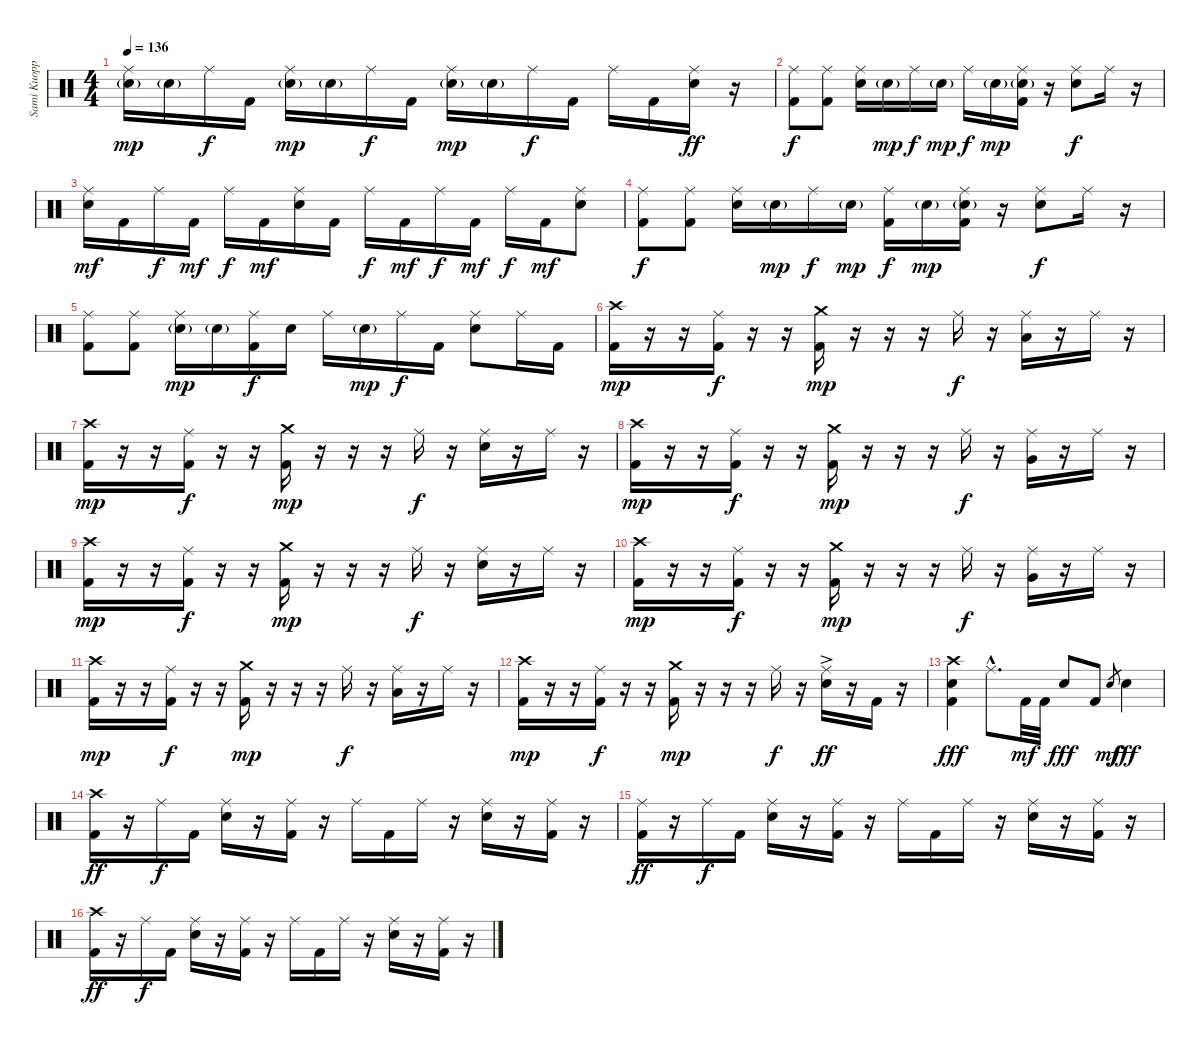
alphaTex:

\track ("Sami Kuoppamäki - Drums" "Sami Kuopp") {instrument percussion}
\staff {score}
\articulation defaults
\ts (4 4)
\tempo 136
\clef neutral
\ks c
("Ride (middle)" "Snare (hit) 2"{g}).16{dy mp} "Snare (hit) 2"{g}.16 "Ride (middle)".16{dy f} "Kick (hit) 2".16 ("Ride (middle)" "Snare (hit) 2"{g}).16{dy mp} "Snare (hit) 2"{g}.16 "Ride (middle)".16{dy f} "Kick (hit) 2".16 ("Ride (middle)" "Snare (hit) 2"{g}).16{dy mp} "Snare (hit) 2"{g}.16 "Ride (middle)".16{dy f} "Kick (hit) 2".16 "Ride (middle)".16 "Kick (hit) 2".16 ("Ride (middle)" "Snare (hit) 2").16{dy ff} r.16 |
("Ride (middle)" "Kick (hit) 2").8{dy f} ("Ride (middle)" "Kick (hit) 2").8 ("Ride (middle)" "Snare (hit) 2").16 "Snare (hit) 2"{g}.16{dy mp} "Ride (middle)".16{dy f} "Snare (hit) 2"{g}.16{dy mp} "Ride (middle)".16{dy f} "Snare (hit) 2"{g}.16{dy mp} ("Ride (middle)" "Snare (hit) 2"{g} "Kick (hit) 2").16 r.16 ("Ride (middle)" "Snare (hit) 2").8{dy f} "Ride (middle)".16 r.16 |
("Ride (middle)" "Snare (hit) 2").16{dy mf} "Kick (hit) 2".16 "Ride (middle)".16{dy f} "Kick (hit) 2".16{dy mf} "Ride (middle)".16{dy f} "Kick (hit) 2".16{dy mf} ("Ride (middle)" "Snare (hit) 2").16 "Kick (hit) 2".16 "Ride (middle)".16{dy f} "Kick (hit) 2".16{dy mf} "Ride (middle)".16{dy f} "Kick (hit) 2".16{dy mf} "Ride (middle)".16{dy f} "Kick (hit) 2".16{dy mf} ("Ride (middle)" "Snare (hit) 2").8 |
("Ride (middle)" "Kick (hit) 2").8{dy f} ("Ride (middle)" "Kick (hit) 2").8 ("Ride (middle)" "Snare (hit) 2").16 "Snare (hit) 2"{g}.16{dy mp} "Ride (middle)".16{dy f} "Snare (hit) 2"{g}.16{dy mp} ("Ride (middle)" "Kick (hit) 2").16{dy f} "Snare (hit) 2"{g}.16{dy mp} ("Ride (middle)" "Snare (hit) 2"{g} "Kick (hit) 2").16 r.16 ("Ride (middle)" "Snare (hit) 2").8{dy f} "Ride (middle)".16 r.16 |
("Ride (middle)" "Kick (hit) 2").8 ("Ride (middle)" "Kick (hit) 2").8 ("Ride (middle)" "Snare (hit) 2"{g}).16{dy mp} "Snare (hit) 2"{g}.16 ("Ride (middle)" "Kick (hit) 2").16{dy f} "Snare (hit) 2".16 "Ride (middle)".16 "Snare (hit) 2"{g}.16{dy mp} "Ride (middle)".16{dy f} "Kick (hit) 2".16 ("Ride (middle)" "Snare (hit) 2").8 "Ride (middle)".16 "Kick (hit) 2".16 |
("Crash high (hit)" "Kick (hit) 2").16{dy mp} r.16 r.16 ("Ride (middle)" "Kick (hit) 2").16{dy f} r.16 r.16 ("Crash medium (hit)" "Kick (hit) 2").16{dy mp} r.16 r.16 r.16 "Ride (middle)".16{dy f} r.16 ("Ride (middle)" "Low Tom (hit)").16 r.16 "Ride (middle)".16 r.16 |
("Crash high (hit)" "Kick (hit) 2").16{dy mp} r.16 r.16 ("Ride (middle)" "Kick (hit) 2").16{dy f} r.16 r.16 ("Crash medium (hit)" "Kick (hit) 2").16{dy mp} r.16 r.16 r.16 "Ride (middle)".16{dy f} r.16 ("Ride (middle)" "Snare (hit) 2").16 r.16 "Ride (middle)".16 r.16 |
("Crash high (hit)" "Kick (hit) 2").16{dy mp} r.16 r.16 ("Ride (middle)" "Kick (hit) 2").16{dy f} r.16 r.16 ("Crash medium (hit)" "Kick (hit) 2").16{dy mp} r.16 r.16 r.16 "Ride (middle)".16{dy f} r.16 ("Ride (middle)" "Very Low Tom (hit)").16 r.16 "Ride (middle)".16 r.16 |
("Crash high (hit)" "Kick (hit) 2").16{dy mp} r.16 r.16 ("Ride (middle)" "Kick (hit) 2").16{dy f} r.16 r.16 ("Crash medium (hit)" "Kick (hit) 2").16{dy mp} r.16 r.16 r.16 "Ride (middle)".16{dy f} r.16 ("Ride (middle)" "Snare (hit) 2").16 r.16 "Ride (middle)".16 r.16 |
("Crash high (hit)" "Kick (hit) 2").16{dy mp} r.16 r.16 ("Ride (middle)" "Kick (hit) 2").16{dy f} r.16 r.16 ("Crash medium (hit)" "Kick (hit) 2").16{dy mp} r.16 r.16 r.16 "Ride (middle)".16{dy f} r.16 ("Ride (middle)" "Very Low Tom (hit)").16 r.16 "Ride (middle)".16 r.16 |
("Crash high (hit)" "Kick (hit) 2").16{dy mp} r.16 r.16 ("Ride (middle)" "Kick (hit) 2").16{dy f} r.16 r.16 ("Crash medium (hit)" "Kick (hit) 2").16{dy mp} r.16 r.16 r.16 "Ride (middle)".16{dy f} r.16 ("Ride (middle)" "Low Tom (hit)").16 r.16 "Ride (middle)".16 r.16 |
("Crash high (hit)" "Kick (hit) 2").16{dy mp} r.16 r.16 ("Ride (middle)" "Kick (hit) 2").16{dy f} r.16 r.16 ("Crash medium (hit)" "Kick (hit) 2").16{dy mp} r.16 r.16 r.16 "Ride (middle)".16{dy f} r.16 ("Ride (middle)"{ac} "Snare (hit) 2").16{dy ff} r.16 "Kick (hit) 2".16 r.16 |
("Crash high (hit)" "Snare (hit) 2" "Kick (hit) 2").4{dy fff} "Ride (middle)"{hac}.8{d} "Kick (hit) 2".32{dy mf} "Kick (hit) 2".32 "Snare (hit) 2".8{dy fff} "Kick (hit) 2".8 "Snare (hit) 2".8{gr dy mf} "Snare (hit) 2".4{dy fff} |
("Crash high (hit)" "Kick (hit) 2").16{dy ff volume 14} r.16 "Ride (middle)".16{dy f} "Kick (hit) 2".16 ("Ride (middle)" "Snare (hit) 2").16 r.16 ("Ride (middle)" "Kick (hit) 2").16 r.16 "Ride (middle)".16 "Kick (hit) 2".16 "Ride (middle)".16 r.16 ("Ride (middle)" "Snare (hit) 2").16 r.16 ("Ride (middle)" "Kick (hit) 2").16 r.16 |
("Ride (middle)" "Kick (hit) 2").16{dy ff} r.16 "Ride (middle)".16{dy f} "Kick (hit) 2".16 ("Ride (middle)" "Snare (hit) 2").16 r.16 ("Ride (middle)" "Kick (hit) 2").16 r.16 "Ride (middle)".16 "Kick (hit) 2".16 "Ride (middle)".16 r.16 ("Ride (middle)" "Snare (hit) 2").16 r.16 ("Ride (middle)" "Kick (hit) 2").16 r.16 |
("Crash high (hit)" "Kick (hit) 2").16{dy ff} r.16 "Ride (middle)".16{dy f} "Kick (hit) 2".16 ("Ride (middle)" "Snare (hit) 2").16 r.16 ("Ride (middle)" "Kick (hit) 2").16 r.16 "Ride (middle)".16 "Kick (hit) 2".16 "Ride (middle)".16 r.16 ("Ride (middle)" "Snare (hit) 2").16 r.16 ("Ride (middle)" "Kick (hit) 2").16 r.16
